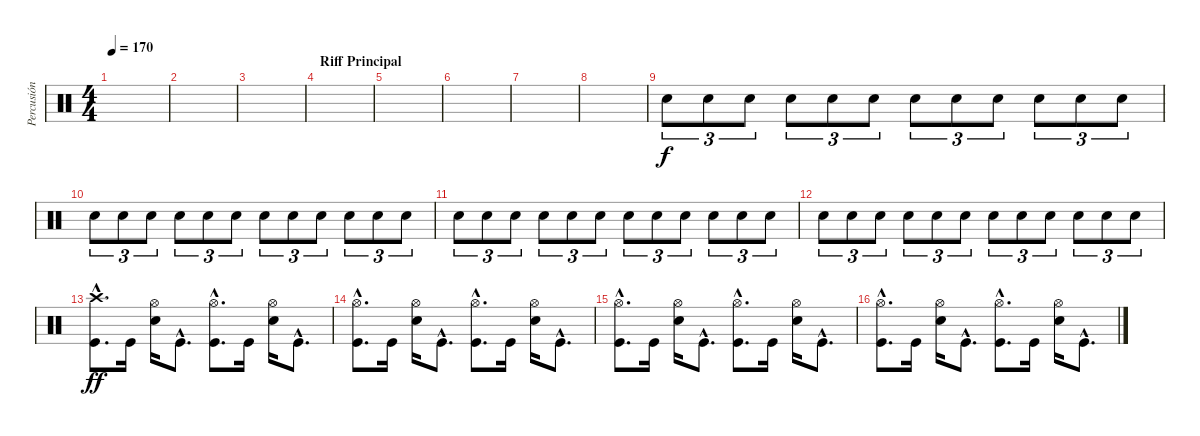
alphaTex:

\track ("Percusión" "Percusión") {instrument percussion}
\staff {score}
\articulation defaults
\ts (4 4)
\tempo 170
\clef neutral
\ks c
|
|
|
\section ("" "Riff Principal")
|
|
|
|
|
"Snare (hit) 2".8{tu (3 2) volume 2} "Snare (hit) 2".8{tu (3 2) volume 16} "Snare (hit) 2".8{tu (3 2)} "Snare (hit) 2".8{tu (3 2)} "Snare (hit) 2".8{tu (3 2)} "Snare (hit) 2".8{tu (3 2)} "Snare (hit) 2".8{tu (3 2)} "Snare (hit) 2".8{tu (3 2)} "Snare (hit) 2".8{tu (3 2)} "Snare (hit) 2".8{tu (3 2)} "Snare (hit) 2".8{tu (3 2)} "Snare (hit) 2".8{tu (3 2)} |
"Snare (hit) 2".8{tu (3 2)} "Snare (hit) 2".8{tu (3 2)} "Snare (hit) 2".8{tu (3 2)} "Snare (hit) 2".8{tu (3 2)} "Snare (hit) 2".8{tu (3 2)} "Snare (hit) 2".8{tu (3 2)} "Snare (hit) 2".8{tu (3 2)} "Snare (hit) 2".8{tu (3 2)} "Snare (hit) 2".8{tu (3 2)} "Snare (hit) 2".8{tu (3 2)} "Snare (hit) 2".8{tu (3 2)} "Snare (hit) 2".8{tu (3 2)} |
"Snare (hit) 2".8{tu (3 2)} "Snare (hit) 2".8{tu (3 2)} "Snare (hit) 2".8{tu (3 2)} "Snare (hit) 2".8{tu (3 2)} "Snare (hit) 2".8{tu (3 2)} "Snare (hit) 2".8{tu (3 2)} "Snare (hit) 2".8{tu (3 2)} "Snare (hit) 2".8{tu (3 2)} "Snare (hit) 2".8{tu (3 2)} "Snare (hit) 2".8{tu (3 2)} "Snare (hit) 2".8{tu (3 2)} "Snare (hit) 2".8{tu (3 2)} |
"Snare (hit) 2".8{tu (3 2)} "Snare (hit) 2".8{tu (3 2)} "Snare (hit) 2".8{tu (3 2)} "Snare (hit) 2".8{tu (3 2)} "Snare (hit) 2".8{tu (3 2)} "Snare (hit) 2".8{tu (3 2)} "Snare (hit) 2".8{tu (3 2)} "Snare (hit) 2".8{tu (3 2)} "Snare (hit) 2".8{tu (3 2)} "Snare (hit) 2".8{tu (3 2)} "Snare (hit) 2".8{tu (3 2)} "Snare (hit) 2".8{tu (3 2)} |
("Crash high (hit)"{hac} "Kick (hit)"{hac}).8{d dy ff} "Kick (hit)".16 ("Hi-Hat (open)" "Snare (hit) 2").16 "Kick (hit)"{hac}.8{d} ("Hi-Hat (open)"{hac} "Kick (hit)"{hac}).8{d} "Kick (hit)".16 ("Hi-Hat (open)" "Snare (hit) 2").16 "Kick (hit)"{hac}.8{d} |
("Hi-Hat (open)"{hac} "Kick (hit)"{hac}).8{d} "Kick (hit)".16 ("Hi-Hat (open)" "Snare (hit) 2").16 "Kick (hit)"{hac}.8{d} ("Hi-Hat (open)"{hac} "Kick (hit)"{hac}).8{d} "Kick (hit)".16 ("Hi-Hat (open)" "Snare (hit) 2").16 "Kick (hit)"{hac}.8{d} |
("Hi-Hat (open)"{hac} "Kick (hit)"{hac}).8{d} "Kick (hit)".16 ("Hi-Hat (open)" "Snare (hit) 2").16 "Kick (hit)"{hac}.8{d} ("Hi-Hat (open)"{hac} "Kick (hit)"{hac}).8{d} "Kick (hit)".16 ("Hi-Hat (open)" "Snare (hit) 2").16 "Kick (hit)"{hac}.8{d} |
("Hi-Hat (open)"{hac} "Kick (hit)"{hac}).8{d} "Kick (hit)".16 ("Hi-Hat (open)" "Snare (hit) 2").16 "Kick (hit)"{hac}.8{d} ("Hi-Hat (open)"{hac} "Kick (hit)"{hac}).8{d} "Kick (hit)".16 ("Hi-Hat (open)" "Snare (hit) 2").16 "Kick (hit)"{hac}.8{d}
